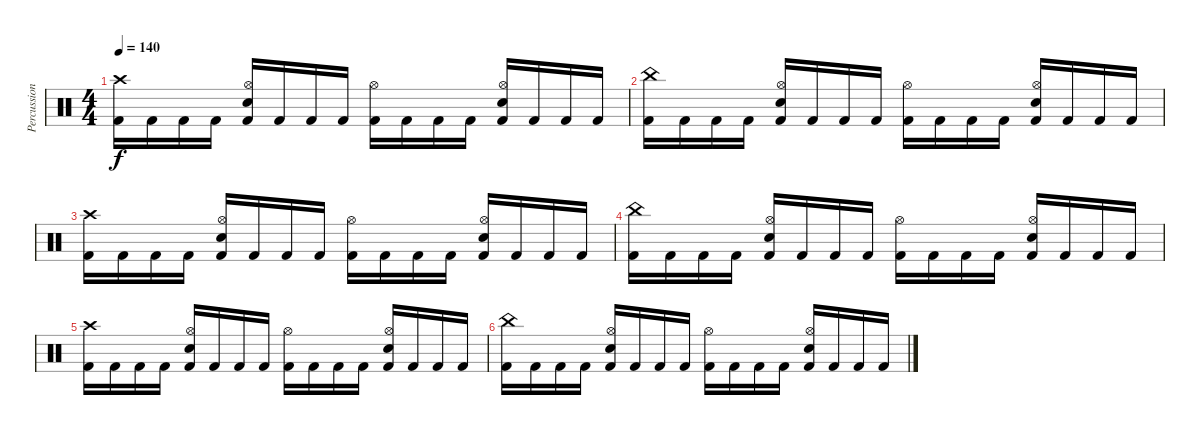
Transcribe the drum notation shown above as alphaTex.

\track ("Percussion" "Percussion") {instrument percussion}
\staff {score}
\articulation defaults
\ts (4 4)
\tempo 140
\clef neutral
\ks c
("Crash high (hit)" "Kick (hit) 2").16{dy f} "Kick (hit) 2".16 "Kick (hit) 2".16 "Kick (hit) 2".16 ("Hi-Hat (open)" "Electric Snare (hit)" "Kick (hit) 2").16 "Kick (hit) 2".16 "Kick (hit) 2".16 "Kick (hit) 2".16 ("Hi-Hat (open)" "Kick (hit) 2").16 "Kick (hit) 2".16 "Kick (hit) 2".16 "Kick (hit) 2".16 ("Hi-Hat (open)" "Electric Snare (hit)" "Kick (hit) 2").16 "Kick (hit) 2".16 "Kick (hit) 2".16 "Kick (hit) 2".16 |
("China (hit)" "Kick (hit) 2").16 "Kick (hit) 2".16 "Kick (hit) 2".16 "Kick (hit) 2".16 ("Hi-Hat (open)" "Electric Snare (hit)" "Kick (hit) 2").16 "Kick (hit) 2".16 "Kick (hit) 2".16 "Kick (hit) 2".16 ("Hi-Hat (open)" "Kick (hit) 2").16 "Kick (hit) 2".16 "Kick (hit) 2".16 "Kick (hit) 2".16 ("Hi-Hat (open)" "Electric Snare (hit)" "Kick (hit) 2").16 "Kick (hit) 2".16 "Kick (hit) 2".16 "Kick (hit) 2".16 |
("Crash high (hit)" "Kick (hit) 2").16 "Kick (hit) 2".16 "Kick (hit) 2".16 "Kick (hit) 2".16 ("Hi-Hat (open)" "Electric Snare (hit)" "Kick (hit) 2").16 "Kick (hit) 2".16 "Kick (hit) 2".16 "Kick (hit) 2".16 ("Hi-Hat (open)" "Kick (hit) 2").16 "Kick (hit) 2".16 "Kick (hit) 2".16 "Kick (hit) 2".16 ("Hi-Hat (open)" "Electric Snare (hit)" "Kick (hit) 2").16 "Kick (hit) 2".16 "Kick (hit) 2".16 "Kick (hit) 2".16 |
("China (hit)" "Kick (hit) 2").16 "Kick (hit) 2".16 "Kick (hit) 2".16 "Kick (hit) 2".16 ("Hi-Hat (open)" "Electric Snare (hit)" "Kick (hit) 2").16 "Kick (hit) 2".16 "Kick (hit) 2".16 "Kick (hit) 2".16 ("Hi-Hat (open)" "Kick (hit) 2").16 "Kick (hit) 2".16 "Kick (hit) 2".16 "Kick (hit) 2".16 ("Hi-Hat (open)" "Electric Snare (hit)" "Kick (hit) 2").16 "Kick (hit) 2".16 "Kick (hit) 2".16 "Kick (hit) 2".16 |
("Crash high (hit)" "Kick (hit) 2").16 "Kick (hit) 2".16 "Kick (hit) 2".16 "Kick (hit) 2".16 ("Hi-Hat (open)" "Electric Snare (hit)" "Kick (hit) 2").16 "Kick (hit) 2".16 "Kick (hit) 2".16 "Kick (hit) 2".16 ("Hi-Hat (open)" "Kick (hit) 2").16 "Kick (hit) 2".16 "Kick (hit) 2".16 "Kick (hit) 2".16 ("Hi-Hat (open)" "Electric Snare (hit)" "Kick (hit) 2").16 "Kick (hit) 2".16 "Kick (hit) 2".16 "Kick (hit) 2".16 |
("China (hit)" "Kick (hit) 2").16 "Kick (hit) 2".16 "Kick (hit) 2".16 "Kick (hit) 2".16 ("Hi-Hat (open)" "Electric Snare (hit)" "Kick (hit) 2").16 "Kick (hit) 2".16 "Kick (hit) 2".16 "Kick (hit) 2".16 ("Hi-Hat (open)" "Kick (hit) 2").16 "Kick (hit) 2".16 "Kick (hit) 2".16 "Kick (hit) 2".16 ("Hi-Hat (open)" "Electric Snare (hit)" "Kick (hit) 2").16 "Kick (hit) 2".16 "Kick (hit) 2".16 "Kick (hit) 2".16
